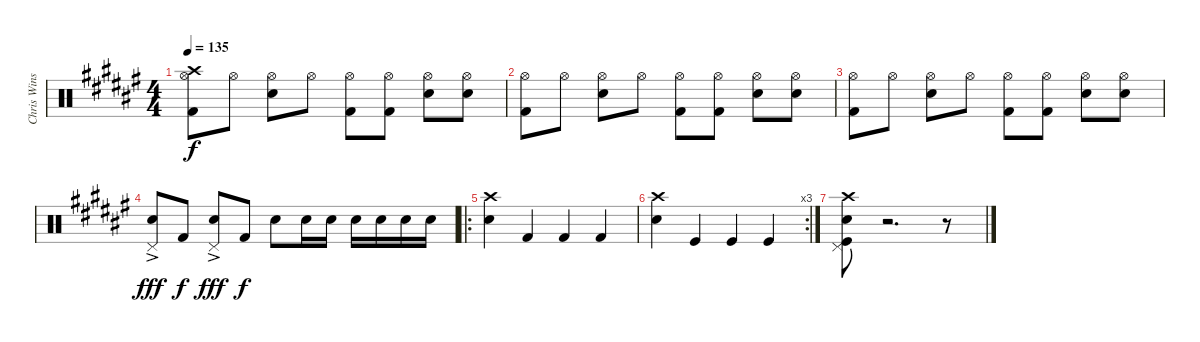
\track ("Chris Winship (Drums)" "Chris Wins") {instrument percussion}
\staff {score}
\articulation defaults
\ts (4 4)
\tempo 135
\clef neutral
\ks f#
("Hi-Hat (open)" "Crash high (hit)" "Kick (hit) 2").8{dy f} "Hi-Hat (open)".8 ("Hi-Hat (open)" "Electric Snare (hit)").8 "Hi-Hat (open)".8 ("Hi-Hat (open)" "Kick (hit) 2").8 ("Hi-Hat (open)" "Kick (hit) 2").8 ("Hi-Hat (open)" "Electric Snare (hit)").8 ("Hi-Hat (open)" "Electric Snare (hit)").8 |
("Hi-Hat (open)" "Kick (hit) 2").8 "Hi-Hat (open)".8 ("Hi-Hat (open)" "Electric Snare (hit)").8 "Hi-Hat (open)".8 ("Hi-Hat (open)" "Kick (hit) 2").8 ("Hi-Hat (open)" "Kick (hit) 2").8 ("Hi-Hat (open)" "Electric Snare (hit)").8 ("Hi-Hat (open)" "Electric Snare (hit)").8 |
("Hi-Hat (open)" "Kick (hit) 2").8 "Hi-Hat (open)".8 ("Hi-Hat (open)" "Electric Snare (hit)").8 "Hi-Hat (open)".8 ("Hi-Hat (open)" "Kick (hit) 2").8 ("Hi-Hat (open)" "Kick (hit) 2").8 ("Hi-Hat (open)" "Electric Snare (hit)").8 ("Hi-Hat (open)" "Electric Snare (hit)").8 |
("Electric Snare (hit)" "Pedal Hi-Hat (hit)"{ac}).8{dy fff} "Kick (hit) 2".8{dy f} ("Electric Snare (hit)" "Pedal Hi-Hat (hit)"{ac}).8{dy fff} "Kick (hit) 2".8{dy f} "Electric Snare (hit)".8 "Electric Snare (hit)".16 "Electric Snare (hit)".16 "Electric Snare (hit)".16 "Electric Snare (hit)".16 "Electric Snare (hit)".16 "Electric Snare (hit)".16 |
\ro
("Crash high (hit)" "Electric Snare (hit)").4 "Kick (hit) 2".4 "Kick (hit) 2".4 "Kick (hit) 2".4 |
\rc 3
("Crash high (hit)" "Electric Snare (hit)").4 "Kick (hit)".4 "Kick (hit)".4 "Kick (hit)".4 |
("Crash high (hit)" "Kick (hit)" "Electric Snare (hit)" "Pedal Hi-Hat (hit)").8 r.2{d} r.8
